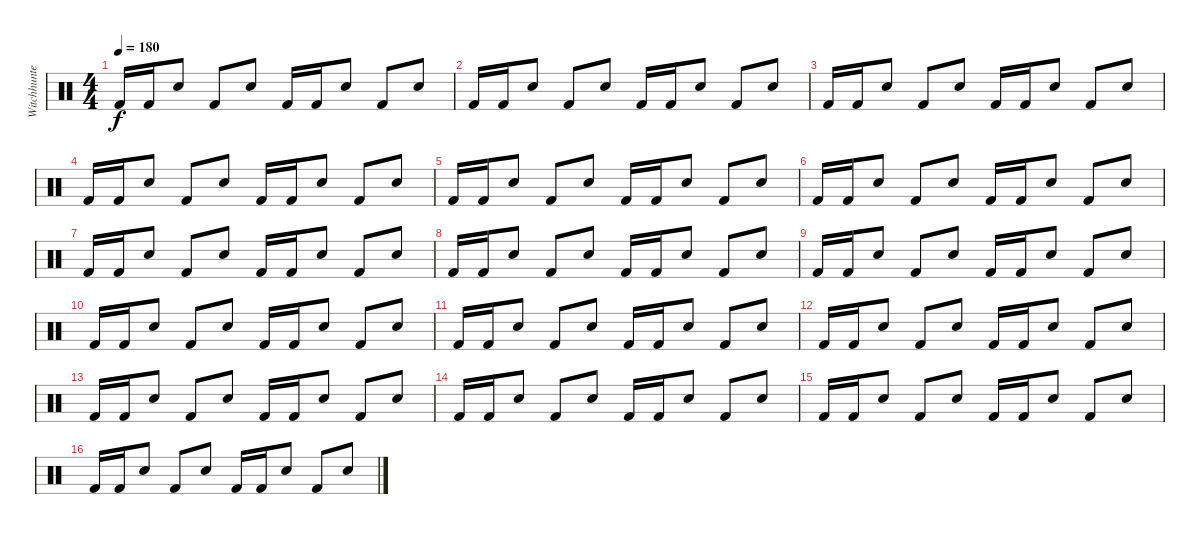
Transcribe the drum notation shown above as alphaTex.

\track ("Witchhunter (Drums)" "Witchhunte") {instrument percussion}
\staff {score}
\articulation defaults
\ts (4 4)
\tempo 180
\clef neutral
\ks c "Kick (hit) 2".16{dy f} "Kick (hit) 2".16 "Snare (hit) 2".8 "Kick (hit) 2".8 "Snare (hit) 2".8 "Kick (hit) 2".16 "Kick (hit) 2".16 "Snare (hit) 2".8 "Kick (hit) 2".8 "Snare (hit) 2".8
|
"Kick (hit) 2".16 "Kick (hit) 2".16 "Snare (hit) 2".8 "Kick (hit) 2".8 "Snare (hit) 2".8 "Kick (hit) 2".16 "Kick (hit) 2".16 "Snare (hit) 2".8 "Kick (hit) 2".8 "Snare (hit) 2".8 |
"Kick (hit) 2".16 "Kick (hit) 2".16 "Snare (hit) 2".8 "Kick (hit) 2".8 "Snare (hit) 2".8 "Kick (hit) 2".16 "Kick (hit) 2".16 "Snare (hit) 2".8 "Kick (hit) 2".8 "Snare (hit) 2".8 |
"Kick (hit) 2".16 "Kick (hit) 2".16 "Snare (hit) 2".8 "Kick (hit) 2".8 "Snare (hit) 2".8 "Kick (hit) 2".16 "Kick (hit) 2".16 "Snare (hit) 2".8 "Kick (hit) 2".8 "Snare (hit) 2".8 |
"Kick (hit) 2".16 "Kick (hit) 2".16 "Snare (hit) 2".8 "Kick (hit) 2".8 "Snare (hit) 2".8 "Kick (hit) 2".16 "Kick (hit) 2".16 "Snare (hit) 2".8 "Kick (hit) 2".8 "Snare (hit) 2".8 |
"Kick (hit) 2".16 "Kick (hit) 2".16 "Snare (hit) 2".8 "Kick (hit) 2".8 "Snare (hit) 2".8 "Kick (hit) 2".16 "Kick (hit) 2".16 "Snare (hit) 2".8 "Kick (hit) 2".8 "Snare (hit) 2".8 |
"Kick (hit) 2".16 "Kick (hit) 2".16 "Snare (hit) 2".8 "Kick (hit) 2".8 "Snare (hit) 2".8 "Kick (hit) 2".16 "Kick (hit) 2".16 "Snare (hit) 2".8 "Kick (hit) 2".8 "Snare (hit) 2".8 |
"Kick (hit) 2".16 "Kick (hit) 2".16 "Snare (hit) 2".8 "Kick (hit) 2".8 "Snare (hit) 2".8 "Kick (hit) 2".16 "Kick (hit) 2".16 "Snare (hit) 2".8 "Kick (hit) 2".8 "Snare (hit) 2".8 |
"Kick (hit) 2".16 "Kick (hit) 2".16 "Snare (hit) 2".8 "Kick (hit) 2".8 "Snare (hit) 2".8 "Kick (hit) 2".16 "Kick (hit) 2".16 "Snare (hit) 2".8 "Kick (hit) 2".8 "Snare (hit) 2".8 |
"Kick (hit) 2".16 "Kick (hit) 2".16 "Snare (hit) 2".8 "Kick (hit) 2".8 "Snare (hit) 2".8 "Kick (hit) 2".16 "Kick (hit) 2".16 "Snare (hit) 2".8 "Kick (hit) 2".8 "Snare (hit) 2".8 |
"Kick (hit) 2".16 "Kick (hit) 2".16 "Snare (hit) 2".8 "Kick (hit) 2".8 "Snare (hit) 2".8 "Kick (hit) 2".16 "Kick (hit) 2".16 "Snare (hit) 2".8 "Kick (hit) 2".8 "Snare (hit) 2".8 |
"Kick (hit) 2".16 "Kick (hit) 2".16 "Snare (hit) 2".8 "Kick (hit) 2".8 "Snare (hit) 2".8 "Kick (hit) 2".16 "Kick (hit) 2".16 "Snare (hit) 2".8 "Kick (hit) 2".8 "Snare (hit) 2".8 |
"Kick (hit) 2".16 "Kick (hit) 2".16 "Snare (hit) 2".8 "Kick (hit) 2".8 "Snare (hit) 2".8 "Kick (hit) 2".16 "Kick (hit) 2".16 "Snare (hit) 2".8 "Kick (hit) 2".8 "Snare (hit) 2".8 |
"Kick (hit) 2".16 "Kick (hit) 2".16 "Snare (hit) 2".8 "Kick (hit) 2".8 "Snare (hit) 2".8 "Kick (hit) 2".16 "Kick (hit) 2".16 "Snare (hit) 2".8 "Kick (hit) 2".8 "Snare (hit) 2".8 |
"Kick (hit) 2".16 "Kick (hit) 2".16 "Snare (hit) 2".8 "Kick (hit) 2".8 "Snare (hit) 2".8 "Kick (hit) 2".16 "Kick (hit) 2".16 "Snare (hit) 2".8 "Kick (hit) 2".8 "Snare (hit) 2".8 |
"Kick (hit) 2".16 "Kick (hit) 2".16 "Snare (hit) 2".8 "Kick (hit) 2".8 "Snare (hit) 2".8 "Kick (hit) 2".16 "Kick (hit) 2".16 "Snare (hit) 2".8 "Kick (hit) 2".8 "Snare (hit) 2".8
